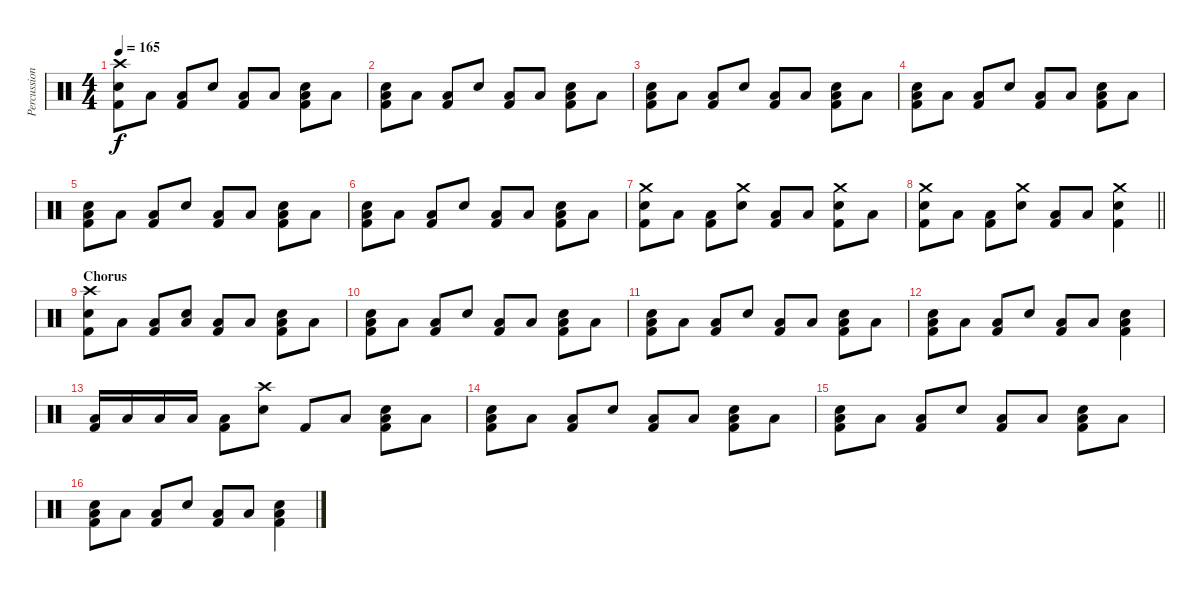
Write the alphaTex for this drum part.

\track ("Percussion" "Percussion") {instrument percussion}
\staff {score}
\articulation defaults
\ts (4 4)
\tempo 165
\clef neutral
\ks c
("Crash high (hit)" "Electric Snare (hit)" "Kick (hit) 2").8{dy f} "Low Floor Tom (hit)".8 ("Low Floor Tom (hit)" "Kick (hit) 2").8 "Electric Snare (hit)".8 ("Low Floor Tom (hit)" "Kick (hit) 2").8 "Low Floor Tom (hit)".8 ("Electric Snare (hit)" "Low Floor Tom (hit)" "Kick (hit) 2").8 "Low Floor Tom (hit)".8 |
("Electric Snare (hit)" "Low Floor Tom (hit)" "Kick (hit) 2").8 "Low Floor Tom (hit)".8 ("Low Floor Tom (hit)" "Kick (hit) 2").8 "Electric Snare (hit)".8 ("Low Floor Tom (hit)" "Kick (hit) 2").8 "Low Floor Tom (hit)".8 ("Electric Snare (hit)" "Low Floor Tom (hit)" "Kick (hit) 2").8 "Low Floor Tom (hit)".8 |
("Electric Snare (hit)" "Low Floor Tom (hit)" "Kick (hit) 2").8 "Low Floor Tom (hit)".8 ("Low Floor Tom (hit)" "Kick (hit) 2").8 "Electric Snare (hit)".8 ("Low Floor Tom (hit)" "Kick (hit) 2").8 "Low Floor Tom (hit)".8 ("Electric Snare (hit)" "Low Floor Tom (hit)" "Kick (hit) 2").8 "Low Floor Tom (hit)".8 |
("Electric Snare (hit)" "Low Floor Tom (hit)" "Kick (hit) 2").8 "Low Floor Tom (hit)".8 ("Low Floor Tom (hit)" "Kick (hit) 2").8 "Electric Snare (hit)".8 ("Low Floor Tom (hit)" "Kick (hit) 2").8 "Low Floor Tom (hit)".8 ("Electric Snare (hit)" "Low Floor Tom (hit)" "Kick (hit) 2").8 "Low Floor Tom (hit)".8 |
("Electric Snare (hit)" "Low Floor Tom (hit)" "Kick (hit) 2").8 "Low Floor Tom (hit)".8 ("Low Floor Tom (hit)" "Kick (hit) 2").8 "Electric Snare (hit)".8 ("Low Floor Tom (hit)" "Kick (hit) 2").8 "Low Floor Tom (hit)".8 ("Electric Snare (hit)" "Low Floor Tom (hit)" "Kick (hit) 2").8 "Low Floor Tom (hit)".8 |
("Electric Snare (hit)" "Low Floor Tom (hit)" "Kick (hit) 2").8 "Low Floor Tom (hit)".8 ("Low Floor Tom (hit)" "Kick (hit) 2").8 "Electric Snare (hit)".8 ("Low Floor Tom (hit)" "Kick (hit) 2").8 "Low Floor Tom (hit)".8 ("Electric Snare (hit)" "Low Floor Tom (hit)" "Kick (hit) 2").8 "Low Floor Tom (hit)".8 |
("Crash medium (hit)" "Electric Snare (hit)" "Kick (hit) 2").8 "Low Tom (hit)".8 ("Low Tom (hit)" "Kick (hit) 2").8 ("Crash medium (hit)" "Electric Snare (hit)").8 ("Low Tom (hit)" "Kick (hit) 2").8 "Low Tom (hit)".8 ("Crash medium (hit)" "Electric Snare (hit)" "Kick (hit) 2").8 "Low Tom (hit)".8 |
\barLineRight lightlight
("Crash medium (hit)" "Electric Snare (hit)" "Kick (hit) 2").8 "Low Tom (hit)".8 ("Low Tom (hit)" "Kick (hit) 2").8 ("Crash medium (hit)" "Electric Snare (hit)").8 ("Low Tom (hit)" "Kick (hit) 2").8 "Low Tom (hit)".8 ("Crash medium (hit)" "Electric Snare (hit)" "Kick (hit) 2").4 |
\section ("" "Chorus")
("Crash high (hit)" "Electric Snare (hit)" "Kick (hit) 2").8 "Low Floor Tom (hit)".8 ("Low Floor Tom (hit)" "Kick (hit) 2").8 ("Electric Snare (hit)" "Low Floor Tom (hit)").8 ("Low Floor Tom (hit)" "Kick (hit) 2").8 "Low Floor Tom (hit)".8 ("Electric Snare (hit)" "Low Floor Tom (hit)" "Kick (hit) 2").8 "Low Floor Tom (hit)".8 |
("Electric Snare (hit)" "Low Floor Tom (hit)" "Kick (hit) 2").8 "Low Floor Tom (hit)".8 ("Low Floor Tom (hit)" "Kick (hit) 2").8 "Electric Snare (hit)".8 ("Low Floor Tom (hit)" "Kick (hit) 2").8 "Low Floor Tom (hit)".8 ("Electric Snare (hit)" "Low Floor Tom (hit)" "Kick (hit) 2").8 "Low Floor Tom (hit)".8 |
("Electric Snare (hit)" "Low Floor Tom (hit)" "Kick (hit) 2").8 "Low Floor Tom (hit)".8 ("Low Floor Tom (hit)" "Kick (hit) 2").8 "Electric Snare (hit)".8 ("Low Floor Tom (hit)" "Kick (hit) 2").8 "Low Floor Tom (hit)".8 ("Electric Snare (hit)" "Low Floor Tom (hit)" "Kick (hit) 2").8 "Low Floor Tom (hit)".8 |
("Electric Snare (hit)" "Low Floor Tom (hit)" "Kick (hit) 2").8 "Low Floor Tom (hit)".8 ("Low Floor Tom (hit)" "Kick (hit) 2").8 "Electric Snare (hit)".8 ("Low Floor Tom (hit)" "Kick (hit) 2").8 "Low Floor Tom (hit)".8 ("Electric Snare (hit)" "Low Floor Tom (hit)" "Kick (hit) 2").4 |
("Low Tom (hit)" "Kick (hit) 2").16 "Low Tom (hit)".16 "Low Tom (hit)".16 "Low Tom (hit)".16 ("Low Tom (hit)" "Kick (hit) 2").8 ("Crash high (hit)" "Electric Snare (hit)").8 "Kick (hit) 2".8 "Low Floor Tom (hit)".8 ("Electric Snare (hit)" "Low Floor Tom (hit)" "Kick (hit) 2").8 "Low Floor Tom (hit)".8 |
("Electric Snare (hit)" "Low Floor Tom (hit)" "Kick (hit) 2").8 "Low Floor Tom (hit)".8 ("Low Floor Tom (hit)" "Kick (hit) 2").8 "Electric Snare (hit)".8 ("Low Floor Tom (hit)" "Kick (hit) 2").8 "Low Floor Tom (hit)".8 ("Electric Snare (hit)" "Low Floor Tom (hit)" "Kick (hit) 2").8 "Low Floor Tom (hit)".8 |
("Electric Snare (hit)" "Low Floor Tom (hit)" "Kick (hit) 2").8 "Low Floor Tom (hit)".8 ("Low Floor Tom (hit)" "Kick (hit) 2").8 "Electric Snare (hit)".8 ("Low Floor Tom (hit)" "Kick (hit) 2").8 "Low Floor Tom (hit)".8 ("Electric Snare (hit)" "Low Floor Tom (hit)" "Kick (hit) 2").8 "Low Floor Tom (hit)".8 |
("Electric Snare (hit)" "Low Floor Tom (hit)" "Kick (hit) 2").8 "Low Floor Tom (hit)".8 ("Low Floor Tom (hit)" "Kick (hit) 2").8 "Electric Snare (hit)".8 ("Low Floor Tom (hit)" "Kick (hit) 2").8 "Low Floor Tom (hit)".8 ("Electric Snare (hit)" "Low Floor Tom (hit)" "Kick (hit) 2").4
